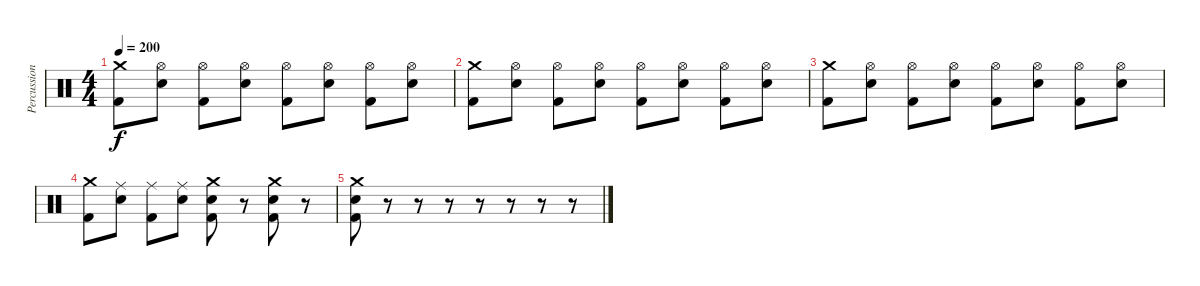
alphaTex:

\track ("Percussion" "Percussion") {instrument percussion}
\staff {score}
\articulation defaults
\ts (4 4)
\tempo 200
\clef neutral
\ks c
("Crash medium (hit)" "Kick (hit) 2").8{dy f} ("Hi-Hat (open)" "Snare (hit) 2").8 ("Hi-Hat (open)" "Kick (hit) 2").8 ("Hi-Hat (open)" "Snare (hit) 2").8 ("Hi-Hat (open)" "Kick (hit) 2").8 ("Hi-Hat (open)" "Snare (hit) 2").8 ("Hi-Hat (open)" "Kick (hit) 2").8 ("Hi-Hat (open)" "Snare (hit) 2").8 |
("Crash medium (hit)" "Kick (hit) 2").8 ("Hi-Hat (open)" "Snare (hit) 2").8 ("Hi-Hat (open)" "Kick (hit) 2").8 ("Hi-Hat (open)" "Snare (hit) 2").8 ("Hi-Hat (open)" "Kick (hit) 2").8 ("Hi-Hat (open)" "Snare (hit) 2").8 ("Hi-Hat (open)" "Kick (hit) 2").8 ("Hi-Hat (open)" "Snare (hit) 2").8 |
("Crash medium (hit)" "Kick (hit) 2").8 ("Hi-Hat (open)" "Snare (hit) 2").8 ("Hi-Hat (open)" "Kick (hit) 2").8 ("Hi-Hat (open)" "Snare (hit) 2").8 ("Hi-Hat (open)" "Kick (hit) 2").8 ("Hi-Hat (open)" "Snare (hit) 2").8 ("Hi-Hat (open)" "Kick (hit) 2").8 ("Hi-Hat (open)" "Snare (hit) 2").8 |
("Crash medium (hit)" "Kick (hit) 2").8 ("Ride (middle)" "Snare (hit) 2").8 ("Ride (middle)" "Kick (hit) 2").8 ("Ride (middle)" "Snare (hit) 2").8 ("Crash medium (hit)" "Snare (hit) 2" "Kick (hit) 2").8 r.8 ("Crash medium (hit)" "Snare (hit) 2" "Kick (hit) 2").8 r.8 |
("Crash medium (hit)" "Snare (hit) 2" "Kick (hit) 2").8 r.8 r.8 r.8 r.8 r.8 r.8 r.8
